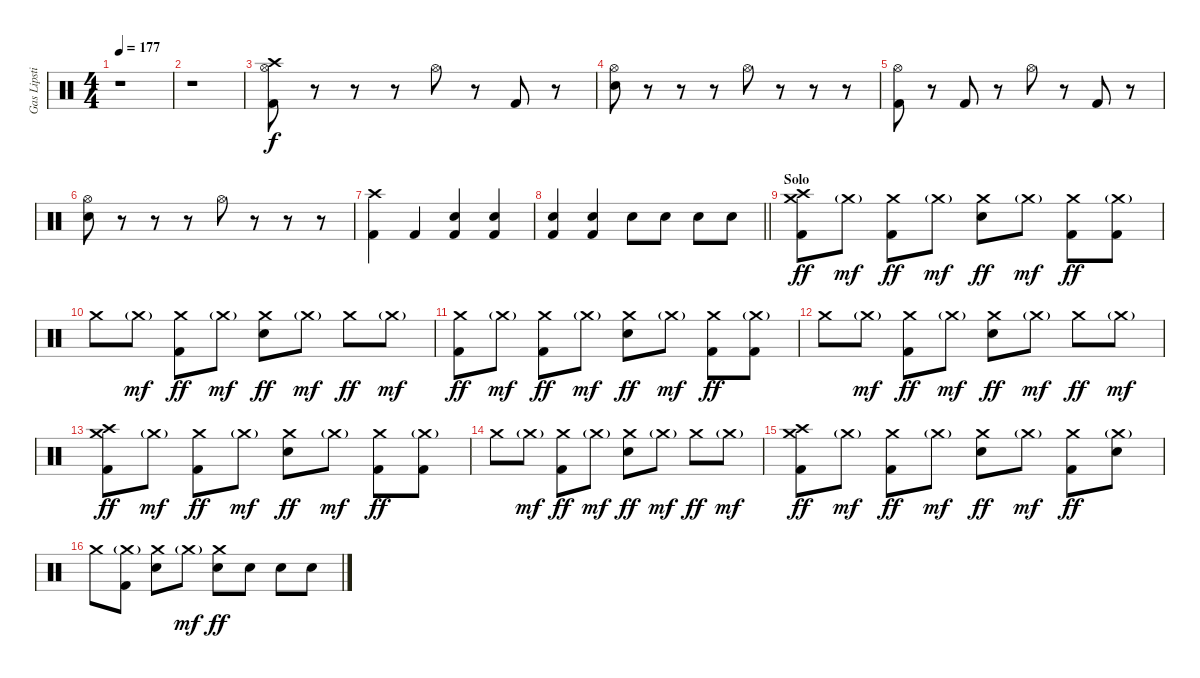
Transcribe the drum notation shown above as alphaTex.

\track ("Gas Lipstick (Drums)" "Gas Lipsti") {instrument percussion}
\staff {score}
\articulation defaults
\ts (4 4)
\tempo 177
\clef neutral
\ks c
r.1{dy f} |
r.1 |
("Crash high (hit)" "Hi-Hat (open)" "Kick (hit) 2").8 r.8 r.8 r.8 "Hi-Hat (open)".8 r.8 "Kick (hit) 2".8 r.8 |
("Hi-Hat (open)" "Snare (hit) 2").8 r.8 r.8 r.8 "Hi-Hat (open)".8 r.8 r.8 r.8 |
("Hi-Hat (open)" "Kick (hit) 2").8 r.8 "Kick (hit) 2".8 r.8 "Hi-Hat (open)".8 r.8 "Kick (hit) 2".8 r.8 |
("Hi-Hat (open)" "Snare (hit) 2").8 r.8 r.8 r.8 "Hi-Hat (open)".8 r.8 r.8 r.8 |
("Crash high (hit)" "Kick (hit) 2").4 "Kick (hit) 2".4 ("Snare (hit) 2" "Kick (hit) 2").4 ("Snare (hit) 2" "Kick (hit) 2").4 |
\barLineRight lightlight
("Snare (hit) 2" "Kick (hit) 2").4 ("Snare (hit) 2" "Kick (hit) 2").4 "Snare (hit) 2".8 "Snare (hit) 2".8 "Snare (hit) 2".8 "Snare (hit) 2".8 |
\section ("" "Solo")
("Crash high (hit)" "Crash medium (hit)" "Kick (hit) 2").8{dy ff} "Crash medium (hit)"{g}.8{dy mf} ("Crash medium (hit)" "Kick (hit) 2").8{dy ff} "Crash medium (hit)"{g}.8{dy mf} ("Crash medium (hit)" "Snare (hit) 2").8{dy ff} "Crash medium (hit)"{g}.8{dy mf} ("Crash medium (hit)" "Kick (hit) 2").8{dy ff} ("Crash medium (hit)"{g} "Kick (hit) 2").8 |
"Crash medium (hit)".8 "Crash medium (hit)"{g}.8{dy mf} ("Crash medium (hit)" "Kick (hit) 2").8{dy ff} "Crash medium (hit)"{g}.8{dy mf} ("Crash medium (hit)" "Snare (hit) 2").8{dy ff} "Crash medium (hit)"{g}.8{dy mf} "Crash medium (hit)".8{dy ff} "Crash medium (hit)"{g}.8{dy mf} |
("Crash medium (hit)" "Kick (hit) 2").8{dy ff} "Crash medium (hit)"{g}.8{dy mf} ("Crash medium (hit)" "Kick (hit) 2").8{dy ff} "Crash medium (hit)"{g}.8{dy mf} ("Crash medium (hit)" "Snare (hit) 2").8{dy ff} "Crash medium (hit)"{g}.8{dy mf} ("Crash medium (hit)" "Kick (hit) 2").8{dy ff} ("Crash medium (hit)"{g} "Kick (hit) 2").8 |
"Crash medium (hit)".8 "Crash medium (hit)"{g}.8{dy mf} ("Crash medium (hit)" "Kick (hit) 2").8{dy ff} "Crash medium (hit)"{g}.8{dy mf} ("Crash medium (hit)" "Snare (hit) 2").8{dy ff} "Crash medium (hit)"{g}.8{dy mf} "Crash medium (hit)".8{dy ff} "Crash medium (hit)"{g}.8{dy mf} |
("Crash high (hit)" "Crash medium (hit)" "Kick (hit) 2").8{dy ff} "Crash medium (hit)"{g}.8{dy mf} ("Crash medium (hit)" "Kick (hit) 2").8{dy ff} "Crash medium (hit)"{g}.8{dy mf} ("Crash medium (hit)" "Snare (hit) 2").8{dy ff} "Crash medium (hit)"{g}.8{dy mf} ("Crash medium (hit)" "Kick (hit) 2").8{dy ff} ("Crash medium (hit)"{g} "Kick (hit) 2").8 |
"Crash medium (hit)".8 "Crash medium (hit)"{g}.8{dy mf} ("Crash medium (hit)" "Kick (hit) 2").8{dy ff} "Crash medium (hit)"{g}.8{dy mf} ("Crash medium (hit)" "Snare (hit) 2").8{dy ff} "Crash medium (hit)"{g}.8{dy mf} "Crash medium (hit)".8{dy ff} "Crash medium (hit)"{g}.8{dy mf} |
("Crash high (hit)" "Crash medium (hit)" "Kick (hit) 2").8{dy ff} "Crash medium (hit)"{g}.8{dy mf} ("Crash medium (hit)" "Kick (hit) 2").8{dy ff} "Crash medium (hit)"{g}.8{dy mf} ("Crash medium (hit)" "Snare (hit) 2").8{dy ff} "Crash medium (hit)"{g}.8{dy mf} ("Crash medium (hit)" "Kick (hit) 2").8{dy ff} ("Crash medium (hit)"{g} "Snare (hit) 2").8 |
"Crash medium (hit)".8 ("Crash medium (hit)"{g} "Kick (hit) 2").8 ("Crash medium (hit)" "Snare (hit) 2").8 "Crash medium (hit)"{g}.8{dy mf} ("Crash medium (hit)" "Snare (hit) 2").8{dy ff} "Snare (hit) 2".8 "Snare (hit) 2".8 "Snare (hit) 2".8
